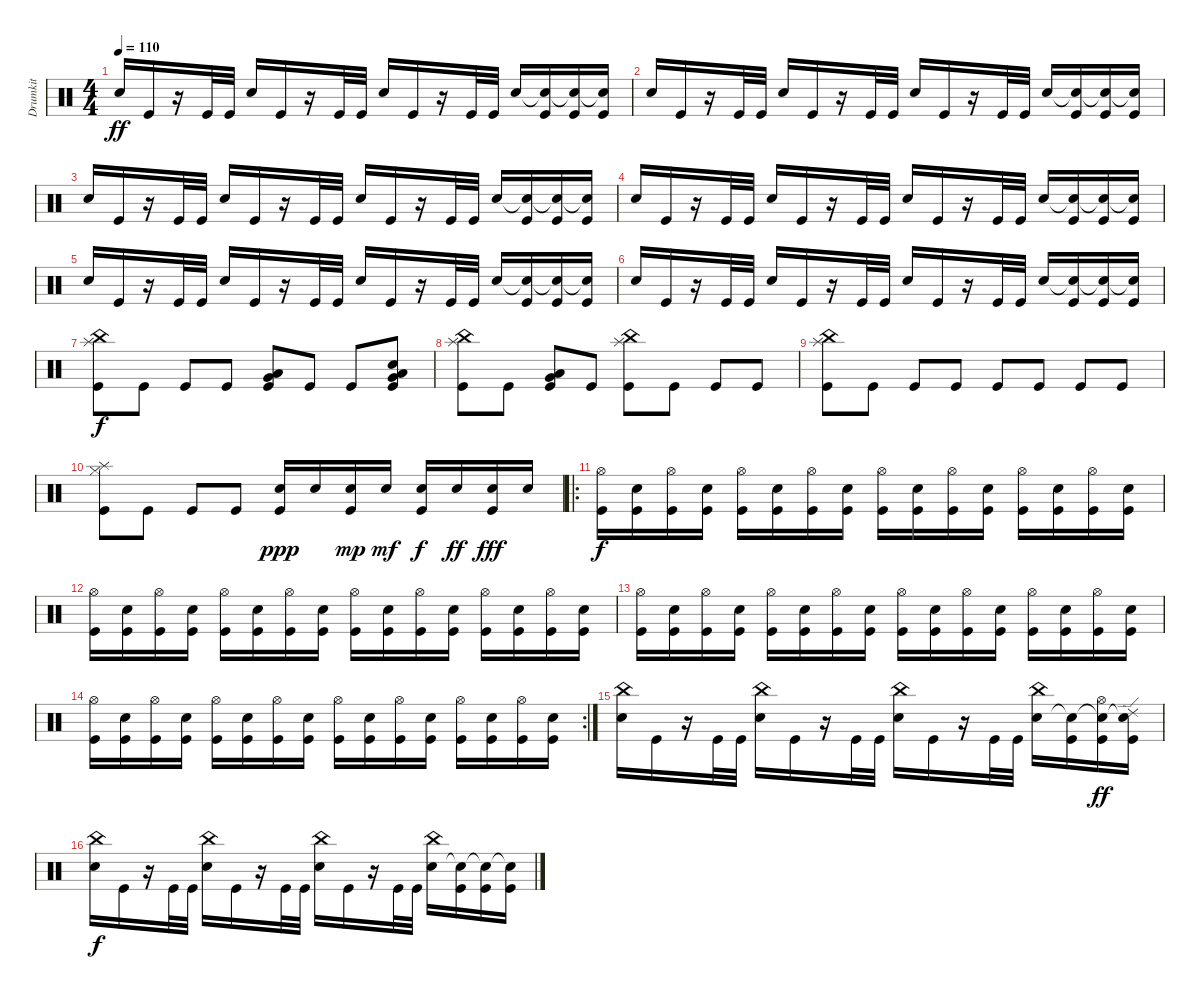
\track ("Drumkit" "Drumkit") {instrument percussion}
\staff {score}
\articulation defaults
\ts (4 4)
\tempo 110
\clef neutral
\ks c "Snare (hit) 2".16{dy ff} "Kick (hit)".16
r.16 "Kick (hit)".32 "Kick (hit)".32 "Snare (hit) 2".16 "Kick (hit)".16 r.16 "Kick (hit)".32 "Kick (hit)".32 "Snare (hit) 2".16 "Kick (hit)".16 r.16 "Kick (hit)".32 "Kick (hit)".32 "Snare (hit) 2".16 ("Snare (hit) 2"{t} "Kick (hit)").16 ("Snare (hit) 2"{t} "Kick (hit)").16 ("Snare (hit) 2"{t} "Kick (hit)").16 |
"Snare (hit) 2".16 "Kick (hit)".16 r.16 "Kick (hit)".32 "Kick (hit)".32 "Snare (hit) 2".16 "Kick (hit)".16 r.16 "Kick (hit)".32 "Kick (hit)".32 "Snare (hit) 2".16 "Kick (hit)".16 r.16 "Kick (hit)".32 "Kick (hit)".32 "Snare (hit) 2".16 ("Snare (hit) 2"{t} "Kick (hit)").16 ("Snare (hit) 2"{t} "Kick (hit)").16 ("Snare (hit) 2"{t} "Kick (hit)").16 |
"Snare (hit) 2".16 "Kick (hit)".16 r.16 "Kick (hit)".32 "Kick (hit)".32 "Snare (hit) 2".16 "Kick (hit)".16 r.16 "Kick (hit)".32 "Kick (hit)".32 "Snare (hit) 2".16 "Kick (hit)".16 r.16 "Kick (hit)".32 "Kick (hit)".32 "Snare (hit) 2".16 ("Snare (hit) 2"{t} "Kick (hit)").16 ("Snare (hit) 2"{t} "Kick (hit)").16 ("Snare (hit) 2"{t} "Kick (hit)").16 |
"Snare (hit) 2".16 "Kick (hit)".16 r.16 "Kick (hit)".32 "Kick (hit)".32 "Snare (hit) 2".16 "Kick (hit)".16 r.16 "Kick (hit)".32 "Kick (hit)".32 "Snare (hit) 2".16 "Kick (hit)".16 r.16 "Kick (hit)".32 "Kick (hit)".32 "Snare (hit) 2".16 ("Snare (hit) 2"{t} "Kick (hit)").16 ("Snare (hit) 2"{t} "Kick (hit)").16 ("Snare (hit) 2"{t} "Kick (hit)").16 |
"Snare (hit) 2".16 "Kick (hit)".16 r.16 "Kick (hit)".32 "Kick (hit)".32 "Snare (hit) 2".16 "Kick (hit)".16 r.16 "Kick (hit)".32 "Kick (hit)".32 "Snare (hit) 2".16 "Kick (hit)".16 r.16 "Kick (hit)".32 "Kick (hit)".32 "Snare (hit) 2".16 ("Snare (hit) 2"{t} "Kick (hit)").16 ("Snare (hit) 2"{t} "Kick (hit)").16 ("Snare (hit) 2"{t} "Kick (hit)").16 |
"Snare (hit) 2".16 "Kick (hit)".16 r.16 "Kick (hit)".32 "Kick (hit)".32 "Snare (hit) 2".16 "Kick (hit)".16 r.16 "Kick (hit)".32 "Kick (hit)".32 "Snare (hit) 2".16 "Kick (hit)".16 r.16 "Kick (hit)".32 "Kick (hit)".32 "Snare (hit) 2".16 ("Snare (hit) 2"{t} "Kick (hit)").16 ("Snare (hit) 2"{t} "Kick (hit)").16 ("Snare (hit) 2"{t} "Kick (hit)").16 |
("Kick (hit)" "China (hit)" "Splash (hit)").8{dy f} "Kick (hit)".8 "Kick (hit)".8 "Kick (hit)".8 ("Kick (hit)" "Very Low Tom (hit)" "Low Tom (hit)").8 "Kick (hit)".8 "Kick (hit)".8 ("Kick (hit)" "Very Low Tom (hit)" "Low Tom (hit)" "Snare (hit) 2").8 |
("Kick (hit)" "Splash (hit)" "China (hit)").8 "Kick (hit)".8 ("Kick (hit)" "Low Tom (hit)" "Very Low Tom (hit)").8 "Kick (hit)".8 ("Kick (hit)" "China (hit)" "Splash (hit)").8 "Kick (hit)".8 "Kick (hit)".8 "Kick (hit)".8 |
("Kick (hit)" "China (hit)" "Splash (hit)").8 "Kick (hit)".8 "Kick (hit)".8 "Kick (hit)".8 "Kick (hit)".8 "Kick (hit)".8 "Kick (hit)".8 "Kick (hit)".8 |
("Kick (hit)" "Splash (hit)" "Hi-Hat (closed)").8 "Kick (hit)".8 "Kick (hit)".8 "Kick (hit)".8 ("Kick (hit)" "Snare (hit) 2").16{dy ppp} "Snare (hit) 2".16 ("Kick (hit)" "Snare (hit) 2").16{dy mp} "Snare (hit) 2".16{dy mf} ("Snare (hit) 2" "Kick (hit)").16{dy f} "Snare (hit) 2".16{dy ff} ("Snare (hit) 2" "Kick (hit)").16{dy fff} "Snare (hit) 2".16 |
\ro
("Kick (hit)" "Hi-Hat (open)").16{dy f} ("Snare (hit) 2" "Kick (hit)").16 ("Kick (hit)" "Hi-Hat (open)").16 ("Snare (hit) 2" "Kick (hit)").16 ("Kick (hit)" "Hi-Hat (open)").16 ("Snare (hit) 2" "Kick (hit)").16 ("Kick (hit)" "Hi-Hat (open)").16 ("Snare (hit) 2" "Kick (hit)").16 ("Kick (hit)" "Hi-Hat (open)").16 ("Snare (hit) 2" "Kick (hit)").16 ("Kick (hit)" "Hi-Hat (open)").16 ("Snare (hit) 2" "Kick (hit)").16 ("Kick (hit)" "Hi-Hat (open)").16 ("Snare (hit) 2" "Kick (hit)").16 ("Kick (hit)" "Hi-Hat (open)").16 ("Snare (hit) 2" "Kick (hit)").16 |
("Kick (hit)" "Hi-Hat (open)").16 ("Snare (hit) 2" "Kick (hit)").16 ("Kick (hit)" "Hi-Hat (open)").16 ("Snare (hit) 2" "Kick (hit)").16 ("Kick (hit)" "Hi-Hat (open)").16 ("Snare (hit) 2" "Kick (hit)").16 ("Kick (hit)" "Hi-Hat (open)").16 ("Snare (hit) 2" "Kick (hit)").16 ("Kick (hit)" "Hi-Hat (open)").16 ("Snare (hit) 2" "Kick (hit)").16 ("Kick (hit)" "Hi-Hat (open)").16 ("Snare (hit) 2" "Kick (hit)").16 ("Kick (hit)" "Hi-Hat (open)").16 ("Snare (hit) 2" "Kick (hit)").16 ("Kick (hit)" "Hi-Hat (open)").16 ("Snare (hit) 2" "Kick (hit)").16 |
("Kick (hit)" "Hi-Hat (open)").16 ("Snare (hit) 2" "Kick (hit)").16 ("Kick (hit)" "Hi-Hat (open)").16 ("Snare (hit) 2" "Kick (hit)").16 ("Kick (hit)" "Hi-Hat (open)").16 ("Snare (hit) 2" "Kick (hit)").16 ("Kick (hit)" "Hi-Hat (open)").16 ("Snare (hit) 2" "Kick (hit)").16 ("Kick (hit)" "Hi-Hat (open)").16 ("Snare (hit) 2" "Kick (hit)").16 ("Kick (hit)" "Hi-Hat (open)").16 ("Snare (hit) 2" "Kick (hit)").16 ("Kick (hit)" "Hi-Hat (open)").16 ("Snare (hit) 2" "Kick (hit)").16 ("Kick (hit)" "Hi-Hat (open)").16 ("Snare (hit) 2" "Kick (hit)").16 |
\rc 2
("Kick (hit)" "Hi-Hat (open)").16 ("Snare (hit) 2" "Kick (hit)").16 ("Kick (hit)" "Hi-Hat (open)").16 ("Snare (hit) 2" "Kick (hit)").16 ("Kick (hit)" "Hi-Hat (open)").16 ("Snare (hit) 2" "Kick (hit)").16 ("Kick (hit)" "Hi-Hat (open)").16 ("Snare (hit) 2" "Kick (hit)").16 ("Kick (hit)" "Hi-Hat (open)").16 ("Snare (hit) 2" "Kick (hit)").16 ("Kick (hit)" "Hi-Hat (open)").16 ("Snare (hit) 2" "Kick (hit)").16 ("Kick (hit)" "Hi-Hat (open)").16 ("Snare (hit) 2" "Kick (hit)").16 ("Kick (hit)" "Hi-Hat (open)").16 ("Snare (hit) 2" "Kick (hit)").16 |
("Snare (hit) 2" "China (hit)").16 "Kick (hit)".16 r.16 "Kick (hit)".32 "Kick (hit)".32 ("Snare (hit) 2" "China (hit)").16 "Kick (hit)".16 r.16 "Kick (hit)".32 "Kick (hit)".32 ("Snare (hit) 2" "China (hit)").16 "Kick (hit)".16 r.16 "Kick (hit)".32 "Kick (hit)".32 ("Snare (hit) 2" "China (hit)").16 ("Snare (hit) 2"{t} "Kick (hit)").16 ("Snare (hit) 2"{t} "Kick (hit)" "Hi-Hat (open)").16{dy ff} ("Snare (hit) 2"{t} "Kick (hit)" "Ride (edge) 2").16 |
("Snare (hit) 2" "China (hit)").16{dy f} "Kick (hit)".16 r.16 "Kick (hit)".32 "Kick (hit)".32 ("Snare (hit) 2" "China (hit)").16 "Kick (hit)".16 r.16 "Kick (hit)".32 "Kick (hit)".32 ("Snare (hit) 2" "China (hit)").16 "Kick (hit)".16 r.16 "Kick (hit)".32 "Kick (hit)".32 ("Snare (hit) 2" "China (hit)").16 ("Snare (hit) 2"{t} "Kick (hit)").16 ("Snare (hit) 2"{t} "Kick (hit)").16 ("Snare (hit) 2"{t} "Kick (hit)").16
